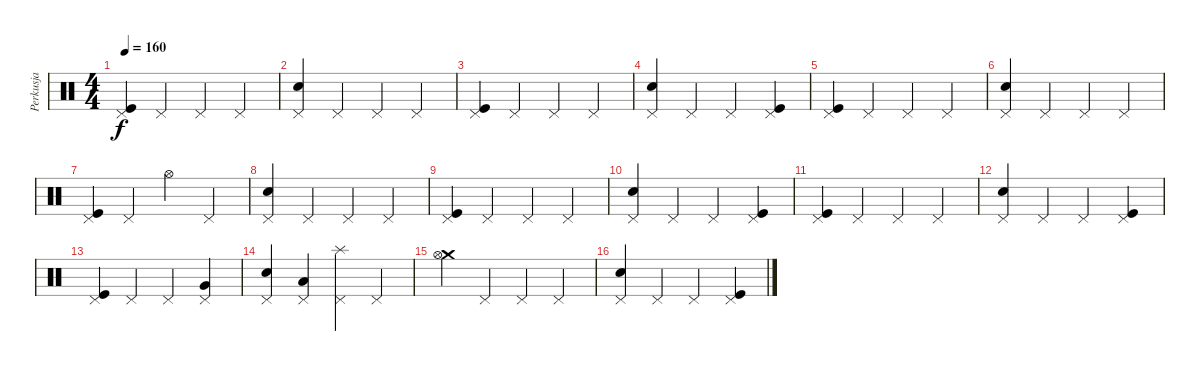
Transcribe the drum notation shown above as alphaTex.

\track ("Perkusja" "Perkusja") {instrument percussion}
\staff {score}
\articulation defaults
\ts (4 4)
\tempo 160
\clef neutral
\ks c
("Kick (hit)" "Pedal Hi-Hat (hit)").4{dy f} "Pedal Hi-Hat (hit)".4 "Pedal Hi-Hat (hit)".4 "Pedal Hi-Hat (hit)".4 |
("Snare (hit) 2" "Pedal Hi-Hat (hit)").4 "Pedal Hi-Hat (hit)".4 "Pedal Hi-Hat (hit)".4 "Pedal Hi-Hat (hit)".4 |
("Kick (hit)" "Pedal Hi-Hat (hit)").4 "Pedal Hi-Hat (hit)".4 "Pedal Hi-Hat (hit)".4 "Pedal Hi-Hat (hit)".4 |
("Snare (hit) 2" "Pedal Hi-Hat (hit)").4 "Pedal Hi-Hat (hit)".4 "Pedal Hi-Hat (hit)".4 ("Kick (hit)" "Pedal Hi-Hat (hit)").4 |
("Kick (hit)" "Pedal Hi-Hat (hit)").4 "Pedal Hi-Hat (hit)".4 "Pedal Hi-Hat (hit)".4 "Pedal Hi-Hat (hit)".4 |
("Snare (hit) 2" "Pedal Hi-Hat (hit)").4 "Pedal Hi-Hat (hit)".4 "Pedal Hi-Hat (hit)".4 "Pedal Hi-Hat (hit)".4 |
("Kick (hit)" "Pedal Hi-Hat (hit)").4 "Pedal Hi-Hat (hit)".4 "Hi-Hat (open)".4 "Pedal Hi-Hat (hit)".4 |
("Snare (hit) 2" "Pedal Hi-Hat (hit)").4 "Pedal Hi-Hat (hit)".4 "Pedal Hi-Hat (hit)".4 "Pedal Hi-Hat (hit)".4 |
("Kick (hit)" "Pedal Hi-Hat (hit)").4 "Pedal Hi-Hat (hit)".4 "Pedal Hi-Hat (hit)".4 "Pedal Hi-Hat (hit)".4 |
("Snare (hit) 2" "Pedal Hi-Hat (hit)").4 "Pedal Hi-Hat (hit)".4 "Pedal Hi-Hat (hit)".4 ("Kick (hit)" "Pedal Hi-Hat (hit)").4 |
("Kick (hit)" "Pedal Hi-Hat (hit)").4 "Pedal Hi-Hat (hit)".4 "Pedal Hi-Hat (hit)".4 "Pedal Hi-Hat (hit)".4 |
("Snare (hit) 2" "Pedal Hi-Hat (hit)").4 "Pedal Hi-Hat (hit)".4 "Pedal Hi-Hat (hit)".4 ("Kick (hit)" "Pedal Hi-Hat (hit)").4 |
("Kick (hit)" "Pedal Hi-Hat (hit)").4 "Pedal Hi-Hat (hit)".4 "Pedal Hi-Hat (hit)".4 ("Very Low Tom (hit)" "Pedal Hi-Hat (hit)").4 |
("Snare (hit) 2" "Pedal Hi-Hat (hit)").4 ("Low Floor Tom (hit)" "Pedal Hi-Hat (hit)").4 ("Splash (hit)" "Pedal Hi-Hat (hit)").4 "Pedal Hi-Hat (hit)".4 |
("Crash medium (hit)" "Hi-Hat (open)").4 "Pedal Hi-Hat (hit)".4 "Pedal Hi-Hat (hit)".4 "Pedal Hi-Hat (hit)".4 |
("Snare (hit) 2" "Pedal Hi-Hat (hit)").4 "Pedal Hi-Hat (hit)".4 "Pedal Hi-Hat (hit)".4 ("Kick (hit)" "Pedal Hi-Hat (hit)").4
